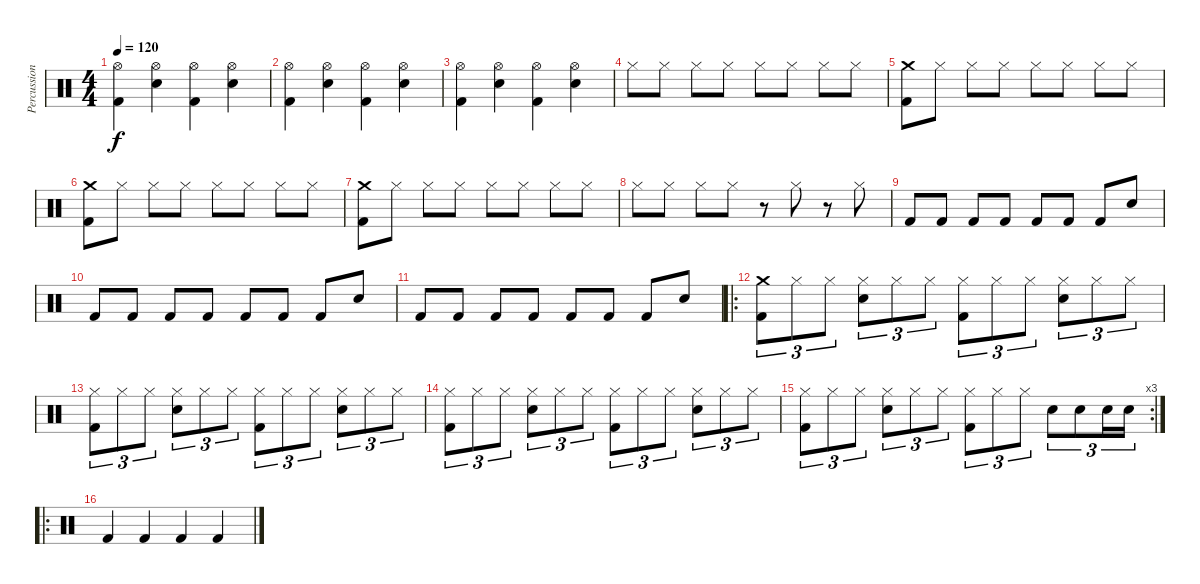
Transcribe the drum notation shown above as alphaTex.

\track ("Percussions" "Percussion") {instrument percussion}
\staff {score}
\articulation defaults
\ts (4 4)
\tempo 120
\clef neutral
\ks c
("Hi-Hat (open)" "Kick (hit) 2").4{dy f} ("Hi-Hat (open)" "Electric Snare (hit)").4 ("Hi-Hat (open)" "Kick (hit) 2").4 ("Hi-Hat (open)" "Electric Snare (hit)").4 |
("Hi-Hat (open)" "Kick (hit) 2").4 ("Hi-Hat (open)" "Electric Snare (hit)").4 ("Hi-Hat (open)" "Kick (hit) 2").4 ("Hi-Hat (open)" "Electric Snare (hit)").4 |
("Hi-Hat (open)" "Kick (hit) 2").4 ("Hi-Hat (open)" "Electric Snare (hit)").4 ("Hi-Hat (open)" "Kick (hit) 2").4 ("Hi-Hat (open)" "Electric Snare (hit)").4 |
"Hi-Hat (closed)".8 "Hi-Hat (closed)".8 "Hi-Hat (closed)".8 "Hi-Hat (closed)".8 "Hi-Hat (closed)".8 "Hi-Hat (closed)".8 "Hi-Hat (closed)".8 "Hi-Hat (closed)".8 |
("Crash medium (hit)" "Kick (hit) 2").8 "Hi-Hat (closed)".8 "Hi-Hat (closed)".8 "Hi-Hat (closed)".8 "Hi-Hat (closed)".8 "Hi-Hat (closed)".8 "Hi-Hat (closed)".8 "Hi-Hat (closed)".8 |
("Crash medium (hit)" "Kick (hit) 2").8 "Hi-Hat (closed)".8 "Hi-Hat (closed)".8 "Hi-Hat (closed)".8 "Hi-Hat (closed)".8 "Hi-Hat (closed)".8 "Hi-Hat (closed)".8 "Hi-Hat (closed)".8 |
("Crash medium (hit)" "Kick (hit) 2").8 "Hi-Hat (closed)".8 "Hi-Hat (closed)".8 "Hi-Hat (closed)".8 "Hi-Hat (closed)".8 "Hi-Hat (closed)".8 "Hi-Hat (closed)".8 "Hi-Hat (closed)".8 |
"Hi-Hat (closed)".8 "Hi-Hat (closed)".8 "Hi-Hat (closed)".8 "Hi-Hat (closed)".8 r.8 "Hi-Hat (closed)".8 r.8 "Hi-Hat (closed)".8 |
"Kick (hit) 2".8 "Kick (hit) 2".8 "Kick (hit) 2".8 "Kick (hit) 2".8 "Kick (hit) 2".8 "Kick (hit) 2".8 "Kick (hit) 2".8 "Electric Snare (hit)".8 |
"Kick (hit) 2".8 "Kick (hit) 2".8 "Kick (hit) 2".8 "Kick (hit) 2".8 "Kick (hit) 2".8 "Kick (hit) 2".8 "Kick (hit) 2".8 "Electric Snare (hit)".8 |
"Kick (hit) 2".8 "Kick (hit) 2".8 "Kick (hit) 2".8 "Kick (hit) 2".8 "Kick (hit) 2".8 "Kick (hit) 2".8 "Kick (hit) 2".8 "Electric Snare (hit)".8 |
\ro
("Crash medium (hit)" "Kick (hit) 2").8{tu (3 2)} "Hi-Hat (closed)".8{tu (3 2)} "Hi-Hat (closed)".8{tu (3 2)} ("Hi-Hat (closed)" "Electric Snare (hit)").8{tu (3 2)} "Hi-Hat (closed)".8{tu (3 2)} "Hi-Hat (closed)".8{tu (3 2)} ("Hi-Hat (closed)" "Kick (hit) 2").8{tu (3 2)} "Hi-Hat (closed)".8{tu (3 2)} "Hi-Hat (closed)".8{tu (3 2)} ("Hi-Hat (closed)" "Electric Snare (hit)").8{tu (3 2)} "Hi-Hat (closed)".8{tu (3 2)} "Hi-Hat (closed)".8{tu (3 2)} |
("Hi-Hat (closed)" "Kick (hit) 2").8{tu (3 2)} "Hi-Hat (closed)".8{tu (3 2)} "Hi-Hat (closed)".8{tu (3 2)} ("Hi-Hat (closed)" "Electric Snare (hit)").8{tu (3 2)} "Hi-Hat (closed)".8{tu (3 2)} "Hi-Hat (closed)".8{tu (3 2)} ("Hi-Hat (closed)" "Kick (hit) 2").8{tu (3 2)} "Hi-Hat (closed)".8{tu (3 2)} "Hi-Hat (closed)".8{tu (3 2)} ("Hi-Hat (closed)" "Electric Snare (hit)").8{tu (3 2)} "Hi-Hat (closed)".8{tu (3 2)} "Hi-Hat (closed)".8{tu (3 2)} |
("Hi-Hat (closed)" "Kick (hit) 2").8{tu (3 2)} "Hi-Hat (closed)".8{tu (3 2)} "Hi-Hat (closed)".8{tu (3 2)} ("Hi-Hat (closed)" "Electric Snare (hit)").8{tu (3 2)} "Hi-Hat (closed)".8{tu (3 2)} "Hi-Hat (closed)".8{tu (3 2)} ("Hi-Hat (closed)" "Kick (hit) 2").8{tu (3 2)} "Hi-Hat (closed)".8{tu (3 2)} "Hi-Hat (closed)".8{tu (3 2)} ("Hi-Hat (closed)" "Electric Snare (hit)").8{tu (3 2)} "Hi-Hat (closed)".8{tu (3 2)} "Hi-Hat (closed)".8{tu (3 2)} |
\rc 3
("Hi-Hat (closed)" "Kick (hit) 2").8{tu (3 2)} "Hi-Hat (closed)".8{tu (3 2)} "Hi-Hat (closed)".8{tu (3 2)} ("Hi-Hat (closed)" "Electric Snare (hit)").8{tu (3 2)} "Hi-Hat (closed)".8{tu (3 2)} "Hi-Hat (closed)".8{tu (3 2)} ("Hi-Hat (closed)" "Kick (hit) 2").8{tu (3 2)} "Hi-Hat (closed)".8{tu (3 2)} "Hi-Hat (closed)".8{tu (3 2)} "Electric Snare (hit)".8{tu (3 2)} "Electric Snare (hit)".8{tu (3 2)} "Electric Snare (hit)".16{tu (3 2)} "Electric Snare (hit)".16{tu (3 2)} |
\ro "Kick (hit) 2".4 "Kick (hit) 2".4 "Kick (hit) 2".4 "Kick (hit) 2".4
